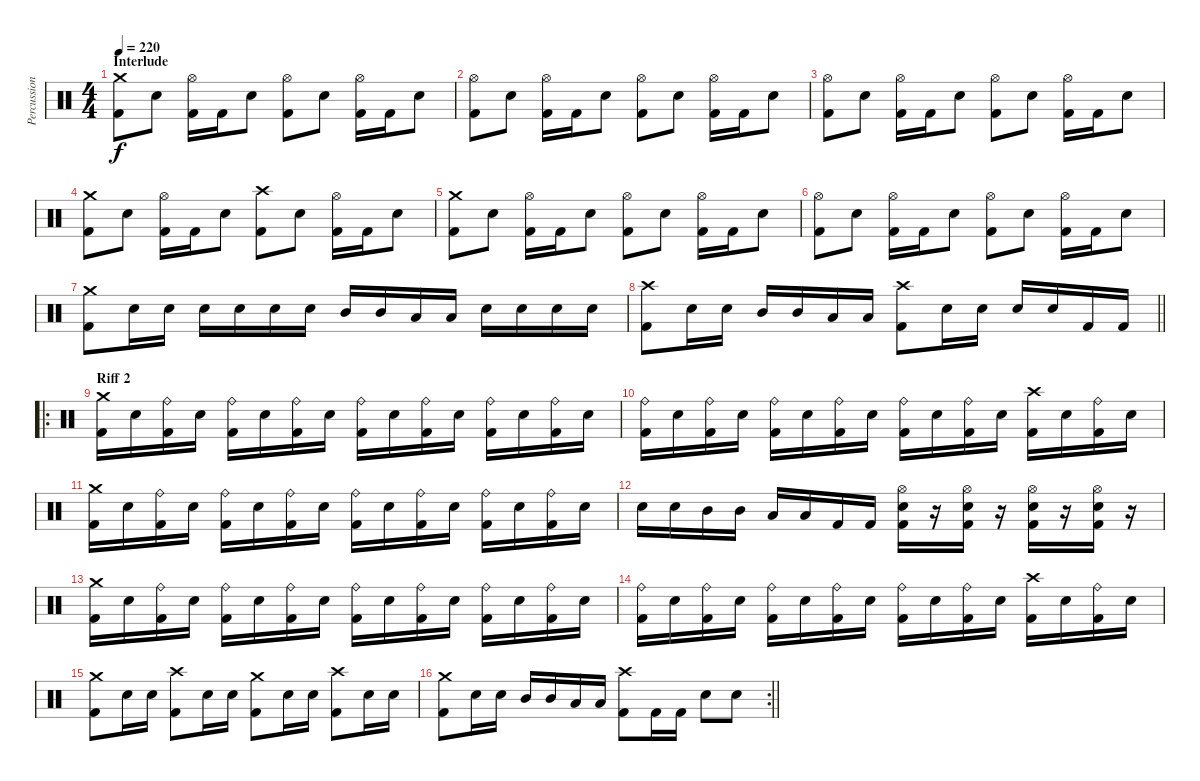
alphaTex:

\track ("Percussion" "Percussion") {instrument percussion}
\staff {score}
\articulation defaults
\ts (4 4)
\section ("" "Interlude")
\tempo 220
\clef neutral
\ks c
("Crash medium (hit)" "Kick (hit) 2").8{dy f} "Electric Snare (hit)".8 ("Hi-Hat (open)" "Kick (hit) 2").16 "Kick (hit) 2".16 "Electric Snare (hit)".8 ("Hi-Hat (open)" "Kick (hit) 2").8 "Electric Snare (hit)".8 ("Hi-Hat (open)" "Kick (hit) 2").16 "Kick (hit) 2".16 "Electric Snare (hit)".8 |
("Hi-Hat (open)" "Kick (hit) 2").8 "Electric Snare (hit)".8 ("Hi-Hat (open)" "Kick (hit) 2").16 "Kick (hit) 2".16 "Electric Snare (hit)".8 ("Hi-Hat (open)" "Kick (hit) 2").8 "Electric Snare (hit)".8 ("Hi-Hat (open)" "Kick (hit) 2").16 "Kick (hit) 2".16 "Electric Snare (hit)".8 |
("Hi-Hat (open)" "Kick (hit) 2").8 "Electric Snare (hit)".8 ("Hi-Hat (open)" "Kick (hit) 2").16 "Kick (hit) 2".16 "Electric Snare (hit)".8 ("Hi-Hat (open)" "Kick (hit) 2").8 "Electric Snare (hit)".8 ("Hi-Hat (open)" "Kick (hit) 2").16 "Kick (hit) 2".16 "Electric Snare (hit)".8 |
("Crash medium (hit)" "Kick (hit) 2").8 "Electric Snare (hit)".8 ("Hi-Hat (open)" "Kick (hit) 2").16 "Kick (hit) 2".16 "Electric Snare (hit)".8 ("Crash high (hit)" "Kick (hit) 2").8 "Electric Snare (hit)".8 ("Hi-Hat (open)" "Kick (hit) 2").16 "Kick (hit) 2".16 "Electric Snare (hit)".8 |
("Crash medium (hit)" "Kick (hit) 2").8 "Electric Snare (hit)".8 ("Hi-Hat (open)" "Kick (hit) 2").16 "Kick (hit) 2".16 "Electric Snare (hit)".8 ("Hi-Hat (open)" "Kick (hit) 2").8 "Electric Snare (hit)".8 ("Hi-Hat (open)" "Kick (hit) 2").16 "Kick (hit) 2".16 "Electric Snare (hit)".8 |
("Hi-Hat (open)" "Kick (hit) 2").8 "Electric Snare (hit)".8 ("Hi-Hat (open)" "Kick (hit) 2").16 "Kick (hit) 2".16 "Electric Snare (hit)".8 ("Hi-Hat (open)" "Kick (hit) 2").8 "Electric Snare (hit)".8 ("Hi-Hat (open)" "Kick (hit) 2").16 "Kick (hit) 2".16 "Electric Snare (hit)".8 |
("Crash medium (hit)" "Kick (hit) 2").8 "Electric Snare (hit)".16 "Electric Snare (hit)".16 "Electric Snare (hit)".16 "Electric Snare (hit)".16 "Electric Snare (hit)".16 "Electric Snare (hit)".16 "Mid Tom (hit)".16 "Mid Tom (hit)".16 "Low Tom (hit)".16 "Low Tom (hit)".16 "Electric Snare (hit)".16 "Electric Snare (hit)".16 "Electric Snare (hit)".16 "Electric Snare (hit)".16 |
\barLineRight lightlight
("Crash high (hit)" "Kick (hit) 2").8 "Electric Snare (hit)".16 "Electric Snare (hit)".16 "Mid Tom (hit)".16 "Mid Tom (hit)".16 "Low Tom (hit)".16 "Low Tom (hit)".16 ("Crash high (hit)" "Kick (hit) 2").8 "Electric Snare (hit)".16 "Electric Snare (hit)".16 "Electric Snare (hit)".16 "Electric Snare (hit)".16 "Kick (hit) 2".16 "Kick (hit) 2".16 |
\ro
\section ("" "Riff 2")
("Crash medium (hit)" "Kick (hit) 2").16 "Electric Snare (hit)".16 ("Ride (bell)" "Kick (hit) 2").16 "Electric Snare (hit)".16 ("Ride (bell)" "Kick (hit) 2").16 "Electric Snare (hit)".16 ("Ride (bell)" "Kick (hit) 2").16 "Electric Snare (hit)".16 ("Ride (bell)" "Kick (hit) 2").16 "Electric Snare (hit)".16 ("Ride (bell)" "Kick (hit) 2").16 "Electric Snare (hit)".16 ("Ride (bell)" "Kick (hit) 2").16 "Electric Snare (hit)".16 ("Ride (bell)" "Kick (hit) 2").16 "Electric Snare (hit)".16 |
("Ride (bell)" "Kick (hit) 2").16 "Electric Snare (hit)".16 ("Ride (bell)" "Kick (hit) 2").16 "Electric Snare (hit)".16 ("Ride (bell)" "Kick (hit) 2").16 "Electric Snare (hit)".16 ("Ride (bell)" "Kick (hit) 2").16 "Electric Snare (hit)".16 ("Ride (bell)" "Kick (hit) 2").16 "Electric Snare (hit)".16 ("Ride (bell)" "Kick (hit) 2").16 "Electric Snare (hit)".16 ("Crash high (hit)" "Kick (hit) 2").16 "Electric Snare (hit)".16 ("Ride (bell)" "Kick (hit) 2").16 "Electric Snare (hit)".16 |
("Crash medium (hit)" "Kick (hit) 2").16 "Electric Snare (hit)".16 ("Ride (bell)" "Kick (hit) 2").16 "Electric Snare (hit)".16 ("Ride (bell)" "Kick (hit) 2").16 "Electric Snare (hit)".16 ("Ride (bell)" "Kick (hit) 2").16 "Electric Snare (hit)".16 ("Ride (bell)" "Kick (hit) 2").16 "Electric Snare (hit)".16 ("Ride (bell)" "Kick (hit) 2").16 "Electric Snare (hit)".16 ("Ride (bell)" "Kick (hit) 2").16 "Electric Snare (hit)".16 ("Ride (bell)" "Kick (hit) 2").16 "Electric Snare (hit)".16 |
"Electric Snare (hit)".16 "Electric Snare (hit)".16 "Mid Tom (hit)".16 "Mid Tom (hit)".16 "Low Tom (hit)".16 "Low Tom (hit)".16 "Kick (hit) 2".16 "Kick (hit) 2".16 ("Hi-Hat (open)" "Electric Snare (hit)" "Kick (hit) 2").16 r.16 ("Hi-Hat (open)" "Electric Snare (hit)" "Kick (hit) 2").16 r.16 ("Hi-Hat (open)" "Electric Snare (hit)" "Kick (hit) 2").16 r.16 ("Hi-Hat (open)" "Electric Snare (hit)" "Kick (hit) 2").16 r.16 |
("Crash medium (hit)" "Kick (hit) 2").16 "Electric Snare (hit)".16 ("Ride (bell)" "Kick (hit) 2").16 "Electric Snare (hit)".16 ("Ride (bell)" "Kick (hit) 2").16 "Electric Snare (hit)".16 ("Ride (bell)" "Kick (hit) 2").16 "Electric Snare (hit)".16 ("Ride (bell)" "Kick (hit) 2").16 "Electric Snare (hit)".16 ("Ride (bell)" "Kick (hit) 2").16 "Electric Snare (hit)".16 ("Ride (bell)" "Kick (hit) 2").16 "Electric Snare (hit)".16 ("Ride (bell)" "Kick (hit) 2").16 "Electric Snare (hit)".16 |
("Ride (bell)" "Kick (hit) 2").16 "Electric Snare (hit)".16 ("Ride (bell)" "Kick (hit) 2").16 "Electric Snare (hit)".16 ("Ride (bell)" "Kick (hit) 2").16 "Electric Snare (hit)".16 ("Ride (bell)" "Kick (hit) 2").16 "Electric Snare (hit)".16 ("Ride (bell)" "Kick (hit) 2").16 "Electric Snare (hit)".16 ("Ride (bell)" "Kick (hit) 2").16 "Electric Snare (hit)".16 ("Crash high (hit)" "Kick (hit) 2").16 "Electric Snare (hit)".16 ("Ride (bell)" "Kick (hit) 2").16 "Electric Snare (hit)".16 |
("Crash medium (hit)" "Kick (hit) 2").8 "Electric Snare (hit)".16 "Electric Snare (hit)".16 ("Crash high (hit)" "Kick (hit) 2").8 "Electric Snare (hit)".16 "Electric Snare (hit)".16 ("Crash medium (hit)" "Kick (hit) 2").8 "Electric Snare (hit)".16 "Electric Snare (hit)".16 ("Crash high (hit)" "Kick (hit) 2").8 "Electric Snare (hit)".16 "Electric Snare (hit)".16 |
\rc 2
\barLineRight lightlight
("Crash medium (hit)" "Kick (hit) 2").8 "Electric Snare (hit)".16 "Electric Snare (hit)".16 "Mid Tom (hit)".16 "Mid Tom (hit)".16 "Low Tom (hit)".16 "Low Tom (hit)".16 ("Crash high (hit)" "Kick (hit) 2").8 "Kick (hit) 2".16 "Kick (hit) 2".16 "Electric Snare (hit)".8 "Electric Snare (hit)".8
